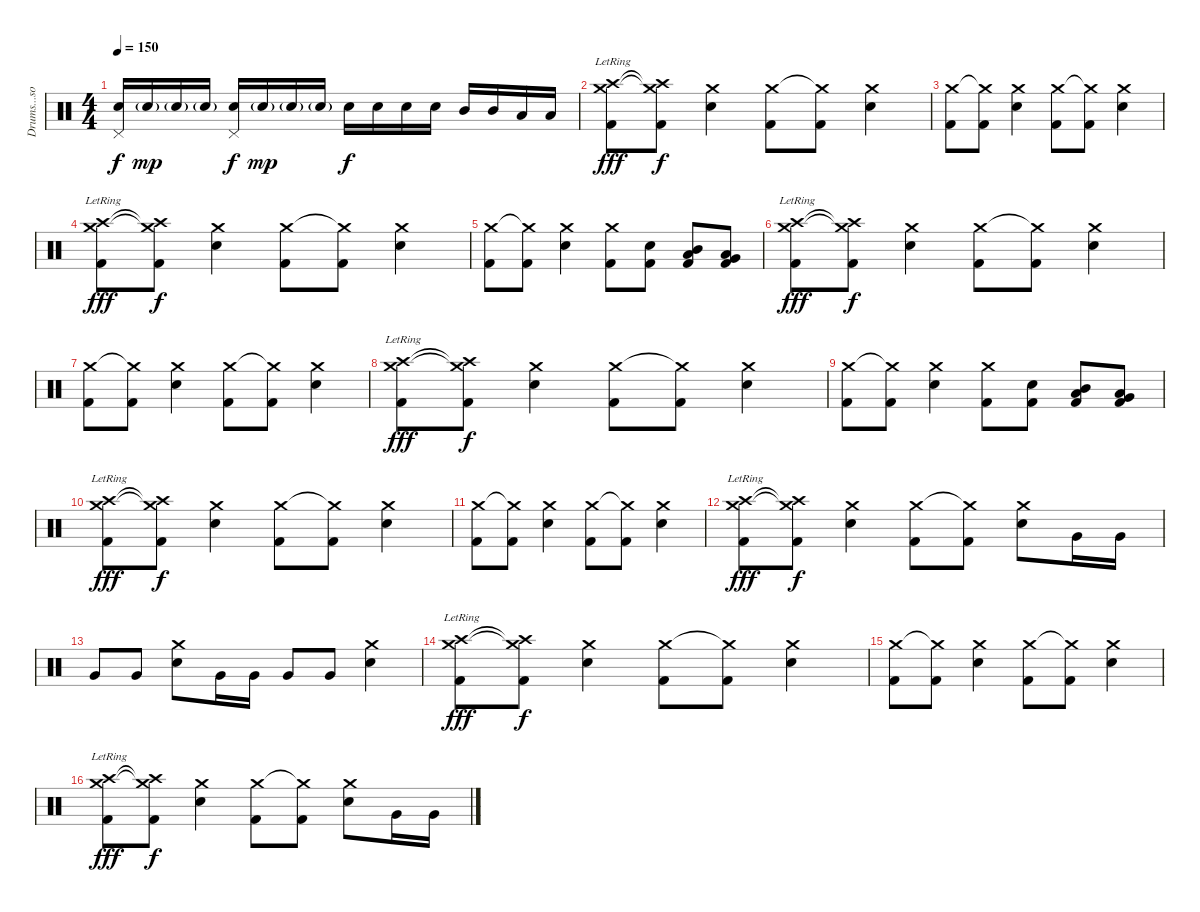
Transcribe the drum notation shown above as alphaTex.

\track ("Drums...song tabbed by ae" "Drums...so") {instrument percussion}
\staff {score}
\articulation defaults
\ts (4 4)
\tempo 150
\clef neutral
\ks c
("Pedal Hi-Hat (hit)" "Electric Snare (hit)").16{dy f} "Electric Snare (hit)"{g}.16{dy mp} "Electric Snare (hit)"{g}.16 "Electric Snare (hit)"{g}.16 ("Pedal Hi-Hat (hit)" "Electric Snare (hit)").16{dy f} "Electric Snare (hit)"{g}.16{dy mp} "Electric Snare (hit)"{g}.16 "Electric Snare (hit)"{g}.16 "Electric Snare (hit)".16{dy f} "Electric Snare (hit)".16 "Electric Snare (hit)".16 "Electric Snare (hit)".16 "Mid Tom (hit)".16 "Mid Tom (hit)".16 "Low Tom (hit)".16 "Low Tom (hit)".16 |
("Crash medium (hit)"{lr} "Crash high (hit)" "Kick (hit) 2").8{dy fff} ("Crash medium (hit)"{t} "Crash high (hit)"{t} "Kick (hit) 2").8{dy f} ("Crash medium (hit)" "Electric Snare (hit)").4 ("Crash medium (hit)" "Kick (hit) 2").8 ("Crash medium (hit)"{t} "Kick (hit) 2").8 ("Crash medium (hit)" "Electric Snare (hit)").4 |
("Crash medium (hit)" "Kick (hit) 2").8 ("Crash medium (hit)"{t} "Kick (hit) 2").8 ("Crash medium (hit)" "Electric Snare (hit)").4 ("Crash medium (hit)" "Kick (hit) 2").8 ("Crash medium (hit)"{t} "Kick (hit) 2").8 ("Crash medium (hit)" "Electric Snare (hit)").4 |
("Crash medium (hit)"{lr} "Crash high (hit)" "Kick (hit) 2").8{dy fff} ("Crash medium (hit)"{t} "Crash high (hit)"{t} "Kick (hit) 2").8{dy f} ("Crash medium (hit)" "Electric Snare (hit)").4 ("Crash medium (hit)" "Kick (hit) 2").8 ("Crash medium (hit)"{t} "Kick (hit) 2").8 ("Crash medium (hit)" "Electric Snare (hit)").4 |
("Crash medium (hit)" "Kick (hit) 2").8 ("Crash medium (hit)"{t} "Kick (hit) 2").8 ("Crash medium (hit)" "Electric Snare (hit)").4 ("Crash medium (hit)" "Kick (hit) 2").8 ("Electric Snare (hit)" "Kick (hit) 2").8 ("Mid Tom (hit)" "Low Tom (hit)" "Kick (hit) 2").8 ("Low Tom (hit)" "Very Low Tom (hit)" "Kick (hit) 2").8 |
("Crash medium (hit)"{lr} "Crash high (hit)" "Kick (hit) 2").8{dy fff} ("Crash medium (hit)"{t} "Crash high (hit)"{t} "Kick (hit) 2").8{dy f} ("Crash medium (hit)" "Electric Snare (hit)").4 ("Crash medium (hit)" "Kick (hit) 2").8 ("Crash medium (hit)"{t} "Kick (hit) 2").8 ("Crash medium (hit)" "Electric Snare (hit)").4 |
("Crash medium (hit)" "Kick (hit) 2").8 ("Crash medium (hit)"{t} "Kick (hit) 2").8 ("Crash medium (hit)" "Electric Snare (hit)").4 ("Crash medium (hit)" "Kick (hit) 2").8 ("Crash medium (hit)"{t} "Kick (hit) 2").8 ("Crash medium (hit)" "Electric Snare (hit)").4 |
("Crash medium (hit)"{lr} "Crash high (hit)" "Kick (hit) 2").8{dy fff} ("Crash medium (hit)"{t} "Crash high (hit)"{t} "Kick (hit) 2").8{dy f} ("Crash medium (hit)" "Electric Snare (hit)").4 ("Crash medium (hit)" "Kick (hit) 2").8 ("Crash medium (hit)"{t} "Kick (hit) 2").8 ("Crash medium (hit)" "Electric Snare (hit)").4 |
("Crash medium (hit)" "Kick (hit) 2").8 ("Crash medium (hit)"{t} "Kick (hit) 2").8 ("Crash medium (hit)" "Electric Snare (hit)").4 ("Crash medium (hit)" "Kick (hit) 2").8 ("Electric Snare (hit)" "Kick (hit) 2").8 ("Mid Tom (hit)" "Low Tom (hit)" "Kick (hit) 2").8 ("Low Tom (hit)" "Very Low Tom (hit)" "Kick (hit) 2").8 |
("Crash medium (hit)"{lr} "Crash high (hit)" "Kick (hit) 2").8{dy fff} ("Crash medium (hit)"{t} "Crash high (hit)"{t} "Kick (hit) 2").8{dy f} ("Crash medium (hit)" "Electric Snare (hit)").4 ("Crash medium (hit)" "Kick (hit) 2").8 ("Crash medium (hit)"{t} "Kick (hit) 2").8 ("Crash medium (hit)" "Electric Snare (hit)").4 |
("Crash medium (hit)" "Kick (hit) 2").8 ("Crash medium (hit)"{t} "Kick (hit) 2").8 ("Crash medium (hit)" "Electric Snare (hit)").4 ("Crash medium (hit)" "Kick (hit) 2").8 ("Crash medium (hit)"{t} "Kick (hit) 2").8 ("Crash medium (hit)" "Electric Snare (hit)").4 |
("Crash medium (hit)"{lr} "Crash high (hit)" "Kick (hit) 2").8{dy fff} ("Crash medium (hit)"{t} "Crash high (hit)"{t} "Kick (hit) 2").8{dy f} ("Crash medium (hit)" "Electric Snare (hit)").4 ("Crash medium (hit)" "Kick (hit) 2").8 ("Crash medium (hit)"{t} "Kick (hit) 2").8 ("Crash medium (hit)" "Electric Snare (hit)").8 "Very Low Tom (hit)".16 "Very Low Tom (hit)".16 |
"Very Low Tom (hit)".8 "Very Low Tom (hit)".8 ("Crash medium (hit)" "Electric Snare (hit)").8 "Very Low Tom (hit)".16 "Very Low Tom (hit)".16 "Very Low Tom (hit)".8 "Very Low Tom (hit)".8 ("Crash medium (hit)" "Electric Snare (hit)").4 |
("Crash medium (hit)"{lr} "Crash high (hit)" "Kick (hit) 2").8{dy fff} ("Crash medium (hit)"{t} "Crash high (hit)"{t} "Kick (hit) 2").8{dy f} ("Crash medium (hit)" "Electric Snare (hit)").4 ("Crash medium (hit)" "Kick (hit) 2").8 ("Crash medium (hit)"{t} "Kick (hit) 2").8 ("Crash medium (hit)" "Electric Snare (hit)").4 |
("Crash medium (hit)" "Kick (hit) 2").8 ("Crash medium (hit)"{t} "Kick (hit) 2").8 ("Crash medium (hit)" "Electric Snare (hit)").4 ("Crash medium (hit)" "Kick (hit) 2").8 ("Crash medium (hit)"{t} "Kick (hit) 2").8 ("Crash medium (hit)" "Electric Snare (hit)").4 |
("Crash medium (hit)"{lr} "Crash high (hit)" "Kick (hit) 2").8{dy fff} ("Crash medium (hit)"{t} "Crash high (hit)"{t} "Kick (hit) 2").8{dy f} ("Crash medium (hit)" "Electric Snare (hit)").4 ("Crash medium (hit)" "Kick (hit) 2").8 ("Crash medium (hit)"{t} "Kick (hit) 2").8 ("Crash medium (hit)" "Electric Snare (hit)").8 "Very Low Tom (hit)".16 "Very Low Tom (hit)".16
